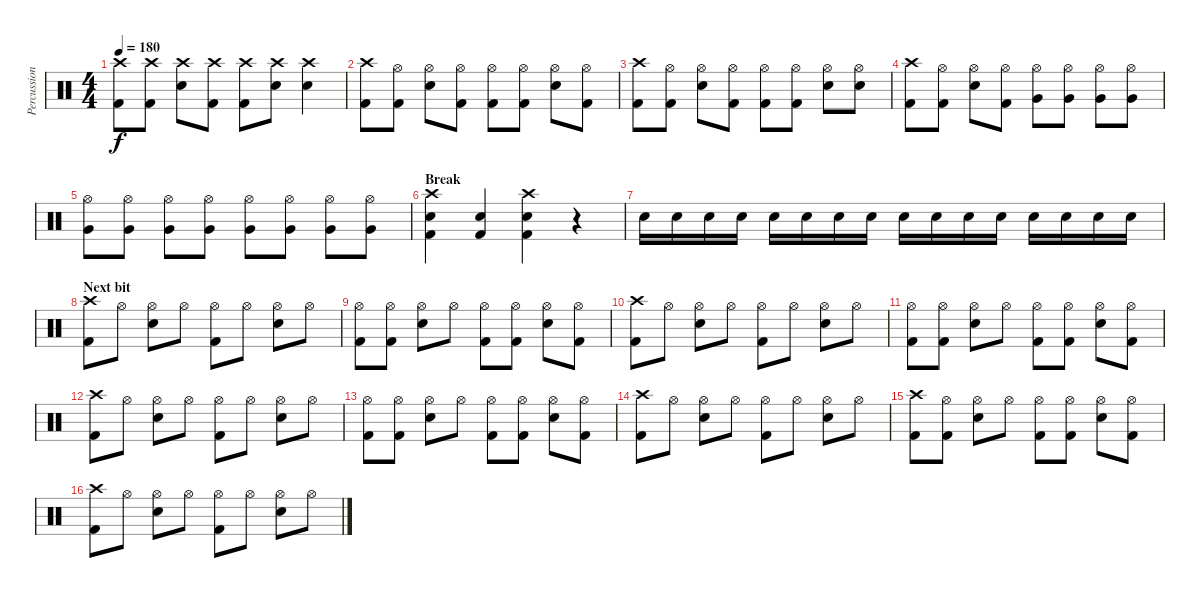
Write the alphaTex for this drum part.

\track ("Percussion" "Percussion") {instrument percussion}
\staff {score}
\articulation defaults
\ts (4 4)
\tempo 180
\clef neutral
\ks c
("Crash high (hit)" "Kick (hit) 2").8{dy f} ("Crash high (hit)" "Kick (hit) 2").8 ("Crash high (hit)" "Snare (hit) 2").8 ("Crash high (hit)" "Kick (hit) 2").8 ("Crash high (hit)" "Kick (hit) 2").8 ("Crash high (hit)" "Snare (hit) 2").8 ("Crash high (hit)" "Snare (hit) 2").4 |
("Crash high (hit)" "Kick (hit) 2").8 ("Hi-Hat (open)" "Kick (hit) 2").8 ("Hi-Hat (open)" "Snare (hit) 2").8 ("Hi-Hat (open)" "Kick (hit) 2").8 ("Hi-Hat (open)" "Kick (hit) 2").8 ("Hi-Hat (open)" "Kick (hit) 2").8 ("Hi-Hat (open)" "Snare (hit) 2").8 ("Hi-Hat (open)" "Kick (hit) 2").8 |
("Crash high (hit)" "Kick (hit) 2").8 ("Hi-Hat (open)" "Kick (hit) 2").8 ("Hi-Hat (open)" "Snare (hit) 2").8 ("Hi-Hat (open)" "Kick (hit) 2").8 ("Hi-Hat (open)" "Kick (hit) 2").8 ("Hi-Hat (open)" "Kick (hit) 2").8 ("Hi-Hat (open)" "Snare (hit) 2").8 ("Hi-Hat (open)" "Snare (hit) 2").8 |
("Crash high (hit)" "Kick (hit) 2").8 ("Hi-Hat (open)" "Kick (hit) 2").8 ("Hi-Hat (open)" "Snare (hit) 2").8 ("Hi-Hat (open)" "Kick (hit) 2").8 ("Hi-Hat (open)" "Very Low Tom (hit)").8 ("Hi-Hat (open)" "Very Low Tom (hit)").8 ("Hi-Hat (open)" "Very Low Tom (hit)").8 ("Hi-Hat (open)" "Very Low Tom (hit)").8 |
("Hi-Hat (open)" "Very Low Tom (hit)").8 ("Hi-Hat (open)" "Very Low Tom (hit)").8 ("Hi-Hat (open)" "Very Low Tom (hit)").8 ("Hi-Hat (open)" "Very Low Tom (hit)").8 ("Hi-Hat (open)" "Very Low Tom (hit)").8 ("Hi-Hat (open)" "Very Low Tom (hit)").8 ("Hi-Hat (open)" "Very Low Tom (hit)").8 ("Hi-Hat (open)" "Very Low Tom (hit)").8 |
\section ("" "Break")
("Crash high (hit)" "Kick (hit) 2" "Snare (hit) 2").4 ("Snare (hit) 2" "Kick (hit) 2").4 ("Crash high (hit)" "Kick (hit) 2" "Snare (hit) 2").4 r.4 |
"Snare (hit) 2".16 "Snare (hit) 2".16 "Snare (hit) 2".16 "Snare (hit) 2".16 "Snare (hit) 2".16 "Snare (hit) 2".16 "Snare (hit) 2".16 "Snare (hit) 2".16 "Snare (hit) 2".16 "Snare (hit) 2".16 "Snare (hit) 2".16 "Snare (hit) 2".16 "Snare (hit) 2".16 "Snare (hit) 2".16 "Snare (hit) 2".16 "Snare (hit) 2".16 |
\section ("" "Next bit")
("Crash high (hit)" "Kick (hit) 2").8 "Hi-Hat (open)".8 ("Hi-Hat (open)" "Snare (hit) 2").8 "Hi-Hat (open)".8 ("Hi-Hat (open)" "Kick (hit) 2").8 "Hi-Hat (open)".8 ("Hi-Hat (open)" "Snare (hit) 2").8 "Hi-Hat (open)".8 |
("Hi-Hat (open)" "Kick (hit) 2").8 ("Hi-Hat (open)" "Kick (hit) 2").8 ("Hi-Hat (open)" "Snare (hit) 2").8 "Hi-Hat (open)".8 ("Hi-Hat (open)" "Kick (hit) 2").8 ("Hi-Hat (open)" "Kick (hit) 2").8 ("Hi-Hat (open)" "Snare (hit) 2").8 ("Hi-Hat (open)" "Kick (hit) 2").8 |
("Crash high (hit)" "Kick (hit) 2").8 "Hi-Hat (open)".8 ("Hi-Hat (open)" "Snare (hit) 2").8 "Hi-Hat (open)".8 ("Hi-Hat (open)" "Kick (hit) 2").8 "Hi-Hat (open)".8 ("Hi-Hat (open)" "Snare (hit) 2").8 "Hi-Hat (open)".8 |
("Hi-Hat (open)" "Kick (hit) 2").8 ("Hi-Hat (open)" "Kick (hit) 2").8 ("Hi-Hat (open)" "Snare (hit) 2").8 "Hi-Hat (open)".8 ("Hi-Hat (open)" "Kick (hit) 2").8 ("Hi-Hat (open)" "Kick (hit) 2").8 ("Hi-Hat (open)" "Snare (hit) 2").8 ("Hi-Hat (open)" "Kick (hit) 2").8 |
("Crash high (hit)" "Kick (hit) 2").8 "Hi-Hat (open)".8 ("Hi-Hat (open)" "Snare (hit) 2").8 "Hi-Hat (open)".8 ("Hi-Hat (open)" "Kick (hit) 2").8 "Hi-Hat (open)".8 ("Hi-Hat (open)" "Snare (hit) 2").8 "Hi-Hat (open)".8 |
("Hi-Hat (open)" "Kick (hit) 2").8 ("Hi-Hat (open)" "Kick (hit) 2").8 ("Hi-Hat (open)" "Snare (hit) 2").8 "Hi-Hat (open)".8 ("Hi-Hat (open)" "Kick (hit) 2").8 ("Hi-Hat (open)" "Kick (hit) 2").8 ("Hi-Hat (open)" "Snare (hit) 2").8 ("Hi-Hat (open)" "Kick (hit) 2").8 |
("Crash high (hit)" "Kick (hit) 2").8 "Hi-Hat (open)".8 ("Hi-Hat (open)" "Snare (hit) 2").8 "Hi-Hat (open)".8 ("Hi-Hat (open)" "Kick (hit) 2").8 "Hi-Hat (open)".8 ("Hi-Hat (open)" "Snare (hit) 2").8 "Hi-Hat (open)".8 |
("Crash high (hit)" "Kick (hit) 2").8 ("Hi-Hat (open)" "Kick (hit) 2").8 ("Hi-Hat (open)" "Snare (hit) 2").8 "Hi-Hat (open)".8 ("Hi-Hat (open)" "Kick (hit) 2").8 ("Hi-Hat (open)" "Kick (hit) 2").8 ("Hi-Hat (open)" "Snare (hit) 2").8 ("Hi-Hat (open)" "Kick (hit) 2").8 |
("Crash high (hit)" "Kick (hit) 2").8 "Hi-Hat (open)".8 ("Hi-Hat (open)" "Snare (hit) 2").8 "Hi-Hat (open)".8 ("Hi-Hat (open)" "Kick (hit) 2").8 "Hi-Hat (open)".8 ("Hi-Hat (open)" "Snare (hit) 2").8 "Hi-Hat (open)".8
